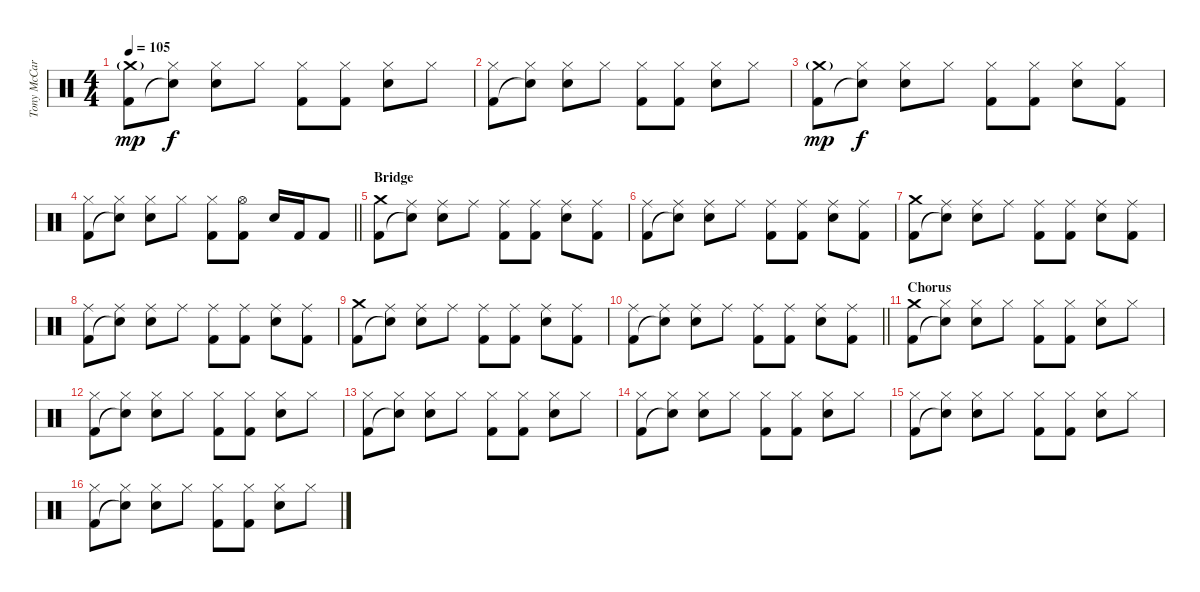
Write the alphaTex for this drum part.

\track ("Tony McCaroll" "Tony McCar") {instrument percussion}
\staff {score}
\articulation defaults
\ts (4 4)
\tempo 105
\clef neutral
\ks c
("Crash medium (hit)"{g} "Kick (hit) 2").8{dy mp} ("Hi-Hat (closed)" "Snare (hit)"{t}).8{dy f} ("Hi-Hat (closed)" "Snare (hit) 2").8 "Hi-Hat (closed)".8 ("Hi-Hat (closed)" "Kick (hit) 2").8 ("Hi-Hat (closed)" "Kick (hit) 2").8 ("Hi-Hat (closed)" "Snare (hit) 2").8 "Hi-Hat (closed)".8 |
("Hi-Hat (closed)" "Kick (hit) 2").8 ("Hi-Hat (closed)" "Snare (hit)"{t}).8 ("Hi-Hat (closed)" "Snare (hit) 2").8 "Hi-Hat (closed)".8 ("Hi-Hat (closed)" "Kick (hit) 2").8 ("Hi-Hat (closed)" "Kick (hit) 2").8 ("Hi-Hat (closed)" "Snare (hit) 2").8 "Hi-Hat (closed)".8 |
("Crash medium (hit)"{g} "Kick (hit) 2").8{dy mp} ("Hi-Hat (closed)" "Snare (hit)"{t}).8{dy f} ("Hi-Hat (closed)" "Snare (hit) 2").8 "Hi-Hat (closed)".8 ("Hi-Hat (closed)" "Kick (hit) 2").8 ("Hi-Hat (closed)" "Kick (hit) 2").8 ("Hi-Hat (closed)" "Snare (hit) 2").8 ("Hi-Hat (closed)" "Kick (hit) 2").8 |
\barLineRight lightlight
("Hi-Hat (closed)" "Kick (hit) 2").8 ("Hi-Hat (closed)" "Snare (hit)"{t}).8 ("Hi-Hat (closed)" "Snare (hit) 2").8 "Hi-Hat (closed)".8 ("Hi-Hat (closed)" "Kick (hit) 2").8 ("Hi-Hat (open)" "Kick (hit) 2").8 "Snare (hit) 2".16 "Kick (hit) 2".16 "Kick (hit) 2".8 |
\section ("" "Bridge")
("Crash medium (hit)" "Kick (hit) 2").8 ("Ride (middle)" "Snare (hit)"{t}).8 ("Ride (middle)" "Snare (hit) 2").8 "Ride (middle)".8 ("Ride (middle)" "Kick (hit) 2").8 ("Ride (middle)" "Kick (hit) 2").8 ("Ride (middle)" "Snare (hit) 2").8 ("Ride (middle)" "Kick (hit) 2").8 |
("Ride (middle)" "Kick (hit) 2").8 ("Ride (middle)" "Snare (hit)"{t}).8 ("Ride (middle)" "Snare (hit) 2").8 "Ride (middle)".8 ("Ride (middle)" "Kick (hit) 2").8 ("Ride (middle)" "Kick (hit) 2").8 ("Ride (middle)" "Snare (hit) 2").8 ("Ride (middle)" "Kick (hit) 2").8 |
("Crash medium (hit)" "Kick (hit) 2").8 ("Ride (middle)" "Snare (hit)"{t}).8 ("Ride (middle)" "Snare (hit) 2").8 "Ride (middle)".8 ("Ride (middle)" "Kick (hit) 2").8 ("Ride (middle)" "Kick (hit) 2").8 ("Ride (middle)" "Snare (hit) 2").8 ("Ride (middle)" "Kick (hit) 2").8 |
("Ride (middle)" "Kick (hit) 2").8 ("Ride (middle)" "Snare (hit)"{t}).8 ("Ride (middle)" "Snare (hit) 2").8 "Ride (middle)".8 ("Ride (middle)" "Kick (hit) 2").8 ("Ride (middle)" "Kick (hit) 2").8 ("Ride (middle)" "Snare (hit) 2").8 ("Ride (middle)" "Kick (hit) 2").8 |
("Crash medium (hit)" "Kick (hit) 2").8 ("Ride (middle)" "Snare (hit)"{t}).8 ("Ride (middle)" "Snare (hit) 2").8 "Ride (middle)".8 ("Ride (middle)" "Kick (hit) 2").8 ("Ride (middle)" "Kick (hit) 2").8 ("Ride (middle)" "Snare (hit) 2").8 ("Ride (middle)" "Kick (hit) 2").8 |
\barLineRight lightlight
("Ride (middle)" "Kick (hit) 2").8 ("Ride (middle)" "Snare (hit)"{t}).8 ("Ride (middle)" "Snare (hit) 2").8 "Ride (middle)".8 ("Ride (middle)" "Kick (hit) 2").8 ("Ride (middle)" "Kick (hit) 2").8 ("Ride (middle)" "Snare (hit) 2").8 ("Ride (middle)" "Kick (hit) 2").8 |
\section ("" "Chorus")
("Crash medium (hit)" "Kick (hit) 2").8 ("Hi-Hat (closed)" "Snare (hit)"{t}).8 ("Hi-Hat (closed)" "Snare (hit) 2").8 "Hi-Hat (closed)".8 ("Hi-Hat (closed)" "Kick (hit) 2").8 ("Hi-Hat (closed)" "Kick (hit) 2").8 ("Hi-Hat (closed)" "Snare (hit) 2").8 "Hi-Hat (closed)".8 |
("Hi-Hat (closed)" "Kick (hit) 2").8 ("Hi-Hat (closed)" "Snare (hit)"{t}).8 ("Hi-Hat (closed)" "Snare (hit) 2").8 "Hi-Hat (closed)".8 ("Hi-Hat (closed)" "Kick (hit) 2").8 ("Hi-Hat (closed)" "Kick (hit) 2").8 ("Hi-Hat (closed)" "Snare (hit) 2").8 "Hi-Hat (closed)".8 |
("Hi-Hat (closed)" "Kick (hit) 2").8 ("Hi-Hat (closed)" "Snare (hit)"{t}).8 ("Hi-Hat (closed)" "Snare (hit) 2").8 "Hi-Hat (closed)".8 ("Hi-Hat (closed)" "Kick (hit) 2").8 ("Hi-Hat (closed)" "Kick (hit) 2").8 ("Hi-Hat (closed)" "Snare (hit) 2").8 "Hi-Hat (closed)".8 |
("Hi-Hat (closed)" "Kick (hit) 2").8 ("Hi-Hat (closed)" "Snare (hit)"{t}).8 ("Hi-Hat (closed)" "Snare (hit) 2").8 "Hi-Hat (closed)".8 ("Hi-Hat (closed)" "Kick (hit) 2").8 ("Hi-Hat (closed)" "Kick (hit) 2").8 ("Hi-Hat (closed)" "Snare (hit) 2").8 "Hi-Hat (closed)".8 |
("Hi-Hat (closed)" "Kick (hit) 2").8 ("Hi-Hat (closed)" "Snare (hit)"{t}).8 ("Hi-Hat (closed)" "Snare (hit) 2").8 "Hi-Hat (closed)".8 ("Hi-Hat (closed)" "Kick (hit) 2").8 ("Hi-Hat (closed)" "Kick (hit) 2").8 ("Hi-Hat (closed)" "Snare (hit) 2").8 "Hi-Hat (closed)".8 |
("Hi-Hat (closed)" "Kick (hit) 2").8 ("Hi-Hat (closed)" "Snare (hit)"{t}).8 ("Hi-Hat (closed)" "Snare (hit) 2").8 "Hi-Hat (closed)".8 ("Hi-Hat (closed)" "Kick (hit) 2").8 ("Hi-Hat (closed)" "Kick (hit) 2").8 ("Hi-Hat (closed)" "Snare (hit) 2").8 "Hi-Hat (closed)".8
